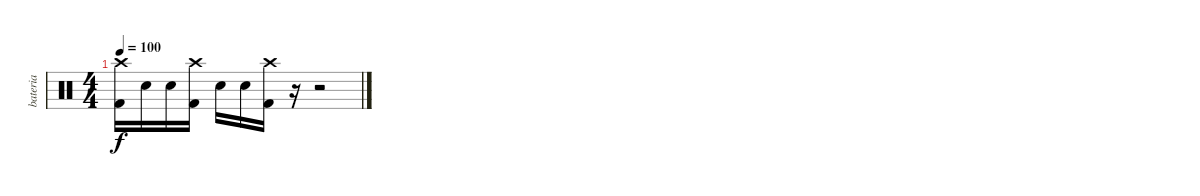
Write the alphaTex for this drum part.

\track ("bateria" "bateria") {instrument percussion}
\staff {score}
\articulation defaults
\ts (4 4)
\tempo 100
\clef neutral
\ks c
("Kick (hit) 2" "Crash high (hit)").16{dy f} "Electric Snare (hit)".16 "Electric Snare (hit)".16 ("Kick (hit) 2" "Crash high (hit)").16 "Electric Snare (hit)".16 "Electric Snare (hit)".16 ("Kick (hit) 2" "Crash high (hit)").16 r.16 r.2
